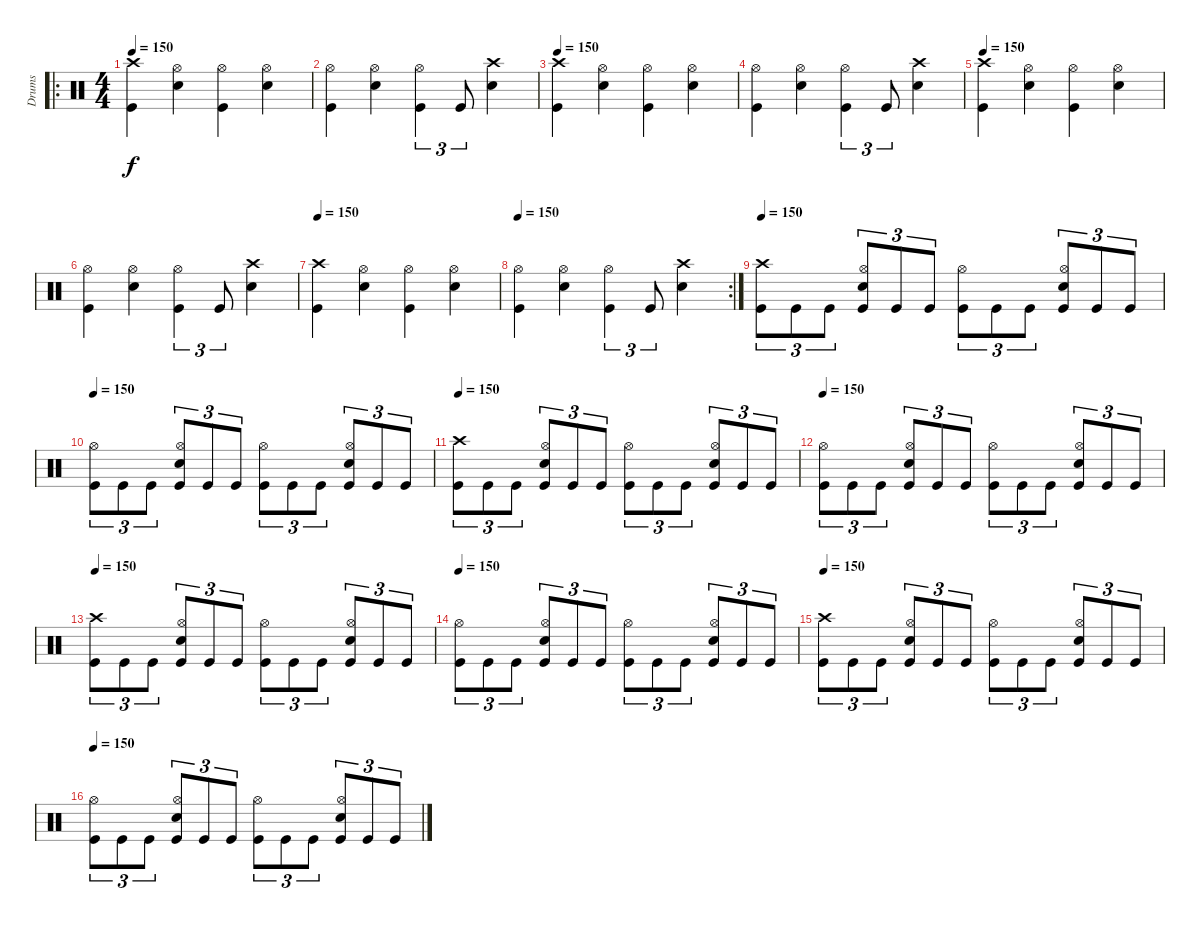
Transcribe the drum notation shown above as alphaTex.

\track ("Drums" "Drums") {instrument percussion}
\staff {score}
\articulation defaults
\ro
\ts (4 4)
\tempo 125
\tempo 150
\clef neutral
\ks c
("Crash high (hit)" "Kick (hit)").4{dy f} ("Hi-Hat (open)" "Electric Snare (hit)").4 ("Hi-Hat (open)" "Kick (hit)").4 ("Hi-Hat (open)" "Electric Snare (hit)").4 |
("Hi-Hat (open)" "Kick (hit)").4 ("Hi-Hat (open)" "Electric Snare (hit)").4 ("Hi-Hat (open)" "Kick (hit)").4{tu (3 2)} "Kick (hit)".8{tu (3 2)} ("Crash high (hit)" "Electric Snare (hit)").4 |
\tempo 150
("Crash high (hit)" "Kick (hit)").4 ("Hi-Hat (open)" "Electric Snare (hit)").4 ("Hi-Hat (open)" "Kick (hit)").4 ("Hi-Hat (open)" "Electric Snare (hit)").4 |
("Hi-Hat (open)" "Kick (hit)").4 ("Hi-Hat (open)" "Electric Snare (hit)").4 ("Hi-Hat (open)" "Kick (hit)").4{tu (3 2)} "Kick (hit)".8{tu (3 2)} ("Crash high (hit)" "Electric Snare (hit)").4 |
\tempo 125
\tempo 150
("Crash high (hit)" "Kick (hit)").4 ("Hi-Hat (open)" "Electric Snare (hit)").4 ("Hi-Hat (open)" "Kick (hit)").4 ("Hi-Hat (open)" "Electric Snare (hit)").4 |
("Hi-Hat (open)" "Kick (hit)").4 ("Hi-Hat (open)" "Electric Snare (hit)").4 ("Hi-Hat (open)" "Kick (hit)").4{tu (3 2)} "Kick (hit)".8{tu (3 2)} ("Crash high (hit)" "Electric Snare (hit)").4 |
\tempo 150
("Crash high (hit)" "Kick (hit)").4 ("Hi-Hat (open)" "Electric Snare (hit)").4 ("Hi-Hat (open)" "Kick (hit)").4 ("Hi-Hat (open)" "Electric Snare (hit)").4 |
\rc 2
\tempo 150
("Hi-Hat (open)" "Kick (hit)").4 ("Hi-Hat (open)" "Electric Snare (hit)").4 ("Hi-Hat (open)" "Kick (hit)").4{tu (3 2)} "Kick (hit)".8{tu (3 2)} ("Crash high (hit)" "Electric Snare (hit)").4 |
\tempo 150
("Crash high (hit)" "Kick (hit)").8{tu (3 2)} "Kick (hit)".8{tu (3 2)} "Kick (hit)".8{tu (3 2)} ("Hi-Hat (open)" "Electric Snare (hit)" "Kick (hit)").8{tu (3 2)} "Kick (hit)".8{tu (3 2)} "Kick (hit)".8{tu (3 2)} ("Hi-Hat (open)" "Kick (hit)").8{tu (3 2)} "Kick (hit)".8{tu (3 2)} "Kick (hit)".8{tu (3 2)} ("Hi-Hat (open)" "Electric Snare (hit)" "Kick (hit)").8{tu (3 2)} "Kick (hit)".8{tu (3 2)} "Kick (hit)".8{tu (3 2)} |
\tempo 150
("Hi-Hat (open)" "Kick (hit)").8{tu (3 2)} "Kick (hit)".8{tu (3 2)} "Kick (hit)".8{tu (3 2)} ("Hi-Hat (open)" "Electric Snare (hit)" "Kick (hit)").8{tu (3 2)} "Kick (hit)".8{tu (3 2)} "Kick (hit)".8{tu (3 2)} ("Hi-Hat (open)" "Kick (hit)").8{tu (3 2)} "Kick (hit)".8{tu (3 2)} "Kick (hit)".8{tu (3 2)} ("Hi-Hat (open)" "Electric Snare (hit)" "Kick (hit)").8{tu (3 2)} "Kick (hit)".8{tu (3 2)} "Kick (hit)".8{tu (3 2)} |
\tempo 150
("Crash high (hit)" "Kick (hit)").8{tu (3 2)} "Kick (hit)".8{tu (3 2)} "Kick (hit)".8{tu (3 2)} ("Hi-Hat (open)" "Electric Snare (hit)" "Kick (hit)").8{tu (3 2)} "Kick (hit)".8{tu (3 2)} "Kick (hit)".8{tu (3 2)} ("Hi-Hat (open)" "Kick (hit)").8{tu (3 2)} "Kick (hit)".8{tu (3 2)} "Kick (hit)".8{tu (3 2)} ("Hi-Hat (open)" "Electric Snare (hit)" "Kick (hit)").8{tu (3 2)} "Kick (hit)".8{tu (3 2)} "Kick (hit)".8{tu (3 2)} |
\tempo 150
("Hi-Hat (open)" "Kick (hit)").8{tu (3 2)} "Kick (hit)".8{tu (3 2)} "Kick (hit)".8{tu (3 2)} ("Hi-Hat (open)" "Electric Snare (hit)" "Kick (hit)").8{tu (3 2)} "Kick (hit)".8{tu (3 2)} "Kick (hit)".8{tu (3 2)} ("Hi-Hat (open)" "Kick (hit)").8{tu (3 2)} "Kick (hit)".8{tu (3 2)} "Kick (hit)".8{tu (3 2)} ("Hi-Hat (open)" "Electric Snare (hit)" "Kick (hit)").8{tu (3 2)} "Kick (hit)".8{tu (3 2)} "Kick (hit)".8{tu (3 2)} |
\tempo 150
("Crash high (hit)" "Kick (hit)").8{tu (3 2)} "Kick (hit)".8{tu (3 2)} "Kick (hit)".8{tu (3 2)} ("Hi-Hat (open)" "Electric Snare (hit)" "Kick (hit)").8{tu (3 2)} "Kick (hit)".8{tu (3 2)} "Kick (hit)".8{tu (3 2)} ("Hi-Hat (open)" "Kick (hit)").8{tu (3 2)} "Kick (hit)".8{tu (3 2)} "Kick (hit)".8{tu (3 2)} ("Hi-Hat (open)" "Electric Snare (hit)" "Kick (hit)").8{tu (3 2)} "Kick (hit)".8{tu (3 2)} "Kick (hit)".8{tu (3 2)} |
\tempo 150
("Hi-Hat (open)" "Kick (hit)").8{tu (3 2)} "Kick (hit)".8{tu (3 2)} "Kick (hit)".8{tu (3 2)} ("Hi-Hat (open)" "Electric Snare (hit)" "Kick (hit)").8{tu (3 2)} "Kick (hit)".8{tu (3 2)} "Kick (hit)".8{tu (3 2)} ("Hi-Hat (open)" "Kick (hit)").8{tu (3 2)} "Kick (hit)".8{tu (3 2)} "Kick (hit)".8{tu (3 2)} ("Hi-Hat (open)" "Electric Snare (hit)" "Kick (hit)").8{tu (3 2)} "Kick (hit)".8{tu (3 2)} "Kick (hit)".8{tu (3 2)} |
\tempo 150
("Crash high (hit)" "Kick (hit)").8{tu (3 2)} "Kick (hit)".8{tu (3 2)} "Kick (hit)".8{tu (3 2)} ("Hi-Hat (open)" "Electric Snare (hit)" "Kick (hit)").8{tu (3 2)} "Kick (hit)".8{tu (3 2)} "Kick (hit)".8{tu (3 2)} ("Hi-Hat (open)" "Kick (hit)").8{tu (3 2)} "Kick (hit)".8{tu (3 2)} "Kick (hit)".8{tu (3 2)} ("Hi-Hat (open)" "Electric Snare (hit)" "Kick (hit)").8{tu (3 2)} "Kick (hit)".8{tu (3 2)} "Kick (hit)".8{tu (3 2)} |
\tempo 150
("Hi-Hat (open)" "Kick (hit)").8{tu (3 2)} "Kick (hit)".8{tu (3 2)} "Kick (hit)".8{tu (3 2)} ("Hi-Hat (open)" "Electric Snare (hit)" "Kick (hit)").8{tu (3 2)} "Kick (hit)".8{tu (3 2)} "Kick (hit)".8{tu (3 2)} ("Hi-Hat (open)" "Kick (hit)").8{tu (3 2)} "Kick (hit)".8{tu (3 2)} "Kick (hit)".8{tu (3 2)} ("Hi-Hat (open)" "Electric Snare (hit)" "Kick (hit)").8{tu (3 2)} "Kick (hit)".8{tu (3 2)} "Kick (hit)".8{tu (3 2)}
